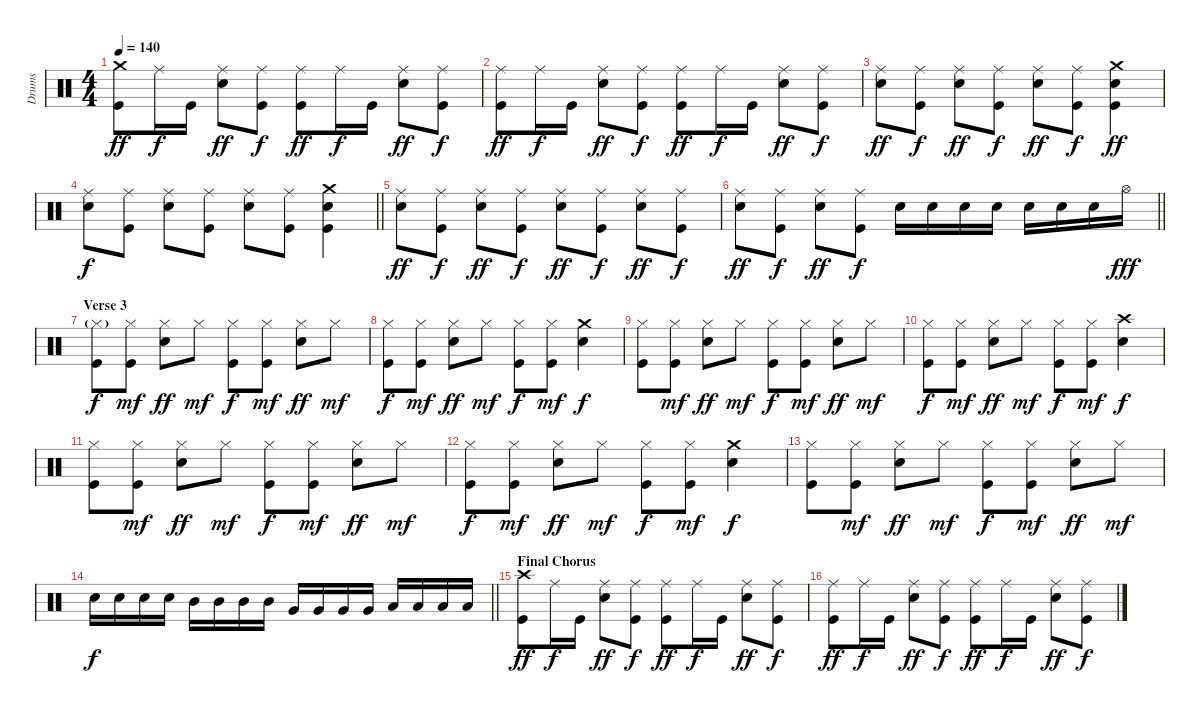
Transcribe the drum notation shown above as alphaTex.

\track ("Drums" "Drums") {instrument percussion}
\staff {score}
\articulation defaults
\ts (4 4)
\tempo 140
\clef neutral
\ks c
("Crash medium (hit)" "Kick (hit)").8{dy ff} "Ride (middle)".16{dy f} "Kick (hit)".16 ("Ride (middle)" "Snare (hit) 2").8{dy ff} ("Ride (middle)" "Kick (hit)").8{dy f} ("Ride (middle)" "Kick (hit)").8{dy ff} "Ride (middle)".16{dy f} "Kick (hit)".16 ("Ride (middle)" "Snare (hit) 2").8{dy ff} ("Ride (middle)" "Kick (hit)").8{dy f} |
("Ride (middle)" "Kick (hit)").8{dy ff} "Ride (middle)".16{dy f} "Kick (hit)".16 ("Ride (middle)" "Snare (hit) 2").8{dy ff} ("Ride (middle)" "Kick (hit)").8{dy f} ("Ride (middle)" "Kick (hit)").8{dy ff} "Ride (middle)".16{dy f} "Kick (hit)".16 ("Ride (middle)" "Snare (hit) 2").8{dy ff} ("Ride (middle)" "Kick (hit)").8{dy f} |
("Ride (middle)" "Snare (hit) 2").8{dy ff} ("Ride (middle)" "Kick (hit)").8{dy f} ("Ride (middle)" "Snare (hit) 2").8{dy ff} ("Ride (middle)" "Kick (hit)").8{dy f} ("Ride (middle)" "Snare (hit) 2").8{dy ff} ("Ride (middle)" "Kick (hit)").8{dy f} ("Crash medium (hit)" "Snare (hit) 2" "Kick (hit)").4{dy ff} |
\barLineRight lightlight
("Ride (middle)" "Snare (hit) 2").8{dy f} ("Ride (middle)" "Kick (hit)").8 ("Ride (middle)" "Snare (hit) 2").8 ("Ride (middle)" "Kick (hit)").8 ("Ride (middle)" "Snare (hit) 2").8 ("Ride (middle)" "Kick (hit)").8 ("Crash medium (hit)" "Snare (hit) 2" "Kick (hit)").4 |
\section ("" "")
("Ride (middle)" "Snare (hit) 2").8{dy ff} ("Ride (middle)" "Kick (hit)").8{dy f} ("Ride (middle)" "Snare (hit) 2").8{dy ff} ("Ride (middle)" "Kick (hit)").8{dy f} ("Ride (middle)" "Snare (hit) 2").8{dy ff} ("Ride (middle)" "Kick (hit)").8{dy f} ("Ride (middle)" "Snare (hit) 2").8{dy ff} ("Ride (middle)" "Kick (hit)").8{dy f} |
\barLineRight lightlight
("Ride (middle)" "Snare (hit) 2").8{dy ff} ("Ride (middle)" "Kick (hit)").8{dy f} ("Ride (middle)" "Snare (hit) 2").8{dy ff} ("Ride (middle)" "Kick (hit)").8{dy f} "Snare (hit) 2".16 "Snare (hit) 2".16 "Snare (hit) 2".16 "Snare (hit) 2".16 "Snare (hit) 2".16 "Snare (hit) 2".16 "Snare (hit) 2".16 "Hi-Hat (open)".16{dy fff} |
\section ("" "Verse 3")
("Hi-Hat (closed)"{g} "Kick (hit)").8{dy f} ("Hi-Hat (closed)" "Kick (hit)").8{dy mf} ("Snare (hit) 2" "Hi-Hat (closed)").8{dy ff} "Hi-Hat (closed)".8{dy mf} ("Hi-Hat (closed)" "Kick (hit)").8{dy f} ("Hi-Hat (closed)" "Kick (hit)").8{dy mf} ("Snare (hit) 2" "Hi-Hat (closed)").8{dy ff} "Hi-Hat (closed)".8{dy mf} |
("Hi-Hat (closed)" "Kick (hit)").8{dy f} ("Hi-Hat (closed)" "Kick (hit)").8{dy mf} ("Snare (hit) 2" "Hi-Hat (closed)").8{dy ff} "Hi-Hat (closed)".8{dy mf} ("Hi-Hat (closed)" "Kick (hit)").8{dy f} ("Hi-Hat (closed)" "Kick (hit)").8{dy mf} ("Crash medium (hit)" "Snare (hit) 2").4{dy f} |
("Hi-Hat (closed)" "Kick (hit)").8 ("Hi-Hat (closed)" "Kick (hit)").8{dy mf} ("Snare (hit) 2" "Hi-Hat (closed)").8{dy ff} "Hi-Hat (closed)".8{dy mf} ("Hi-Hat (closed)" "Kick (hit)").8{dy f} ("Hi-Hat (closed)" "Kick (hit)").8{dy mf} ("Snare (hit) 2" "Hi-Hat (closed)").8{dy ff} "Hi-Hat (closed)".8{dy mf} |
("Hi-Hat (closed)" "Kick (hit)").8{dy f} ("Hi-Hat (closed)" "Kick (hit)").8{dy mf} ("Snare (hit) 2" "Hi-Hat (closed)").8{dy ff} "Hi-Hat (closed)".8{dy mf} ("Hi-Hat (closed)" "Kick (hit)").8{dy f} ("Hi-Hat (closed)" "Kick (hit)").8{dy mf} ("Crash high (hit)" "Snare (hit) 2").4{dy f} |
("Hi-Hat (closed)" "Kick (hit)").8 ("Hi-Hat (closed)" "Kick (hit)").8{dy mf} ("Snare (hit) 2" "Hi-Hat (closed)").8{dy ff} "Hi-Hat (closed)".8{dy mf} ("Hi-Hat (closed)" "Kick (hit)").8{dy f} ("Hi-Hat (closed)" "Kick (hit)").8{dy mf} ("Snare (hit) 2" "Hi-Hat (closed)").8{dy ff} "Hi-Hat (closed)".8{dy mf} |
("Hi-Hat (closed)" "Kick (hit)").8{dy f} ("Hi-Hat (closed)" "Kick (hit)").8{dy mf} ("Snare (hit) 2" "Hi-Hat (closed)").8{dy ff} "Hi-Hat (closed)".8{dy mf} ("Hi-Hat (closed)" "Kick (hit)").8{dy f} ("Hi-Hat (closed)" "Kick (hit)").8{dy mf} ("Crash medium (hit)" "Snare (hit) 2").4{dy f} |
("Hi-Hat (closed)" "Kick (hit)").8 ("Hi-Hat (closed)" "Kick (hit)").8{dy mf} ("Snare (hit) 2" "Hi-Hat (closed)").8{dy ff} "Hi-Hat (closed)".8{dy mf} ("Hi-Hat (closed)" "Kick (hit)").8{dy f} ("Hi-Hat (closed)" "Kick (hit)").8{dy mf} ("Snare (hit) 2" "Hi-Hat (closed)").8{dy ff} "Hi-Hat (closed)".8{dy mf} |
\barLineRight lightlight "Snare (hit) 2".16{dy f} "Snare (hit) 2".16 "Snare (hit) 2".16 "Snare (hit) 2".16 "Mid Tom (hit)".16 "Mid Tom (hit)".16 "Mid Tom (hit)".16 "Mid Tom (hit)".16 "Very Low Tom (hit)".16 "Very Low Tom (hit)".16 "Very Low Tom (hit)".16 "Very Low Tom (hit)".16 "Low Floor Tom (hit)".16 "Low Floor Tom (hit)".16 "Low Floor Tom (hit)".16 "Low Floor Tom (hit)".16
|
\section ("" "Final Chorus")
("Crash high (hit)" "Kick (hit)").8{dy ff} "Ride (middle)".16{dy f} "Kick (hit)".16 ("Ride (middle)" "Snare (hit) 2").8{dy ff} ("Ride (middle)" "Kick (hit)").8{dy f} ("Ride (middle)" "Kick (hit)").8{dy ff} "Ride (middle)".16{dy f} "Kick (hit)".16 ("Ride (middle)" "Snare (hit) 2").8{dy ff} ("Ride (middle)" "Kick (hit)").8{dy f} |
("Ride (middle)" "Kick (hit)").8{dy ff} "Ride (middle)".16{dy f} "Kick (hit)".16 ("Ride (middle)" "Snare (hit) 2").8{dy ff} ("Ride (middle)" "Kick (hit)").8{dy f} ("Ride (middle)" "Kick (hit)").8{dy ff} "Ride (middle)".16{dy f} "Kick (hit)".16 ("Ride (middle)" "Snare (hit) 2").8{dy ff} ("Ride (middle)" "Kick (hit)").8{dy f}
